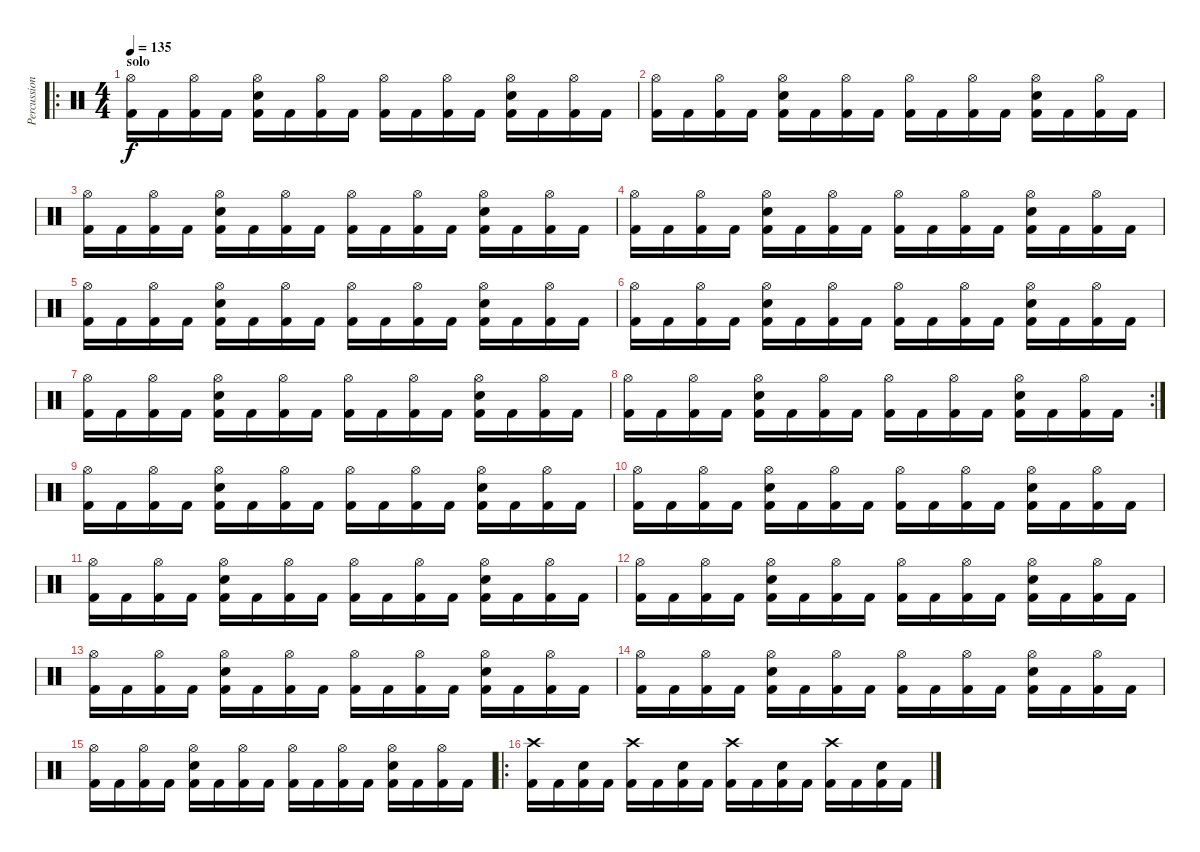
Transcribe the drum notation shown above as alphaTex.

\track ("Percussions" "Percussion") {instrument percussion}
\staff {score}
\articulation defaults
\ro
\ts (4 4)
\section ("" "solo")
\tempo 135
\clef neutral
\ks c
("Hi-Hat (open)" "Kick (hit) 2").16{dy f} "Kick (hit) 2".16 ("Hi-Hat (open)" "Kick (hit) 2").16 "Kick (hit) 2".16 ("Hi-Hat (open)" "Snare (hit) 2" "Kick (hit) 2").16 "Kick (hit) 2".16 ("Hi-Hat (open)" "Kick (hit) 2").16 "Kick (hit) 2".16 ("Hi-Hat (open)" "Kick (hit) 2").16 "Kick (hit) 2".16 ("Hi-Hat (open)" "Kick (hit) 2").16 "Kick (hit) 2".16 ("Hi-Hat (open)" "Snare (hit) 2" "Kick (hit) 2").16 "Kick (hit) 2".16 ("Hi-Hat (open)" "Kick (hit) 2").16 "Kick (hit) 2".16 |
("Hi-Hat (open)" "Kick (hit) 2").16 "Kick (hit) 2".16 ("Hi-Hat (open)" "Kick (hit) 2").16 "Kick (hit) 2".16 ("Hi-Hat (open)" "Snare (hit) 2" "Kick (hit) 2").16 "Kick (hit) 2".16 ("Hi-Hat (open)" "Kick (hit) 2").16 "Kick (hit) 2".16 ("Hi-Hat (open)" "Kick (hit) 2").16 "Kick (hit) 2".16 ("Hi-Hat (open)" "Kick (hit) 2").16 "Kick (hit) 2".16 ("Hi-Hat (open)" "Snare (hit) 2" "Kick (hit) 2").16 "Kick (hit) 2".16 ("Hi-Hat (open)" "Kick (hit) 2").16 "Kick (hit) 2".16 |
("Hi-Hat (open)" "Kick (hit) 2").16 "Kick (hit) 2".16 ("Hi-Hat (open)" "Kick (hit) 2").16 "Kick (hit) 2".16 ("Hi-Hat (open)" "Snare (hit) 2" "Kick (hit) 2").16 "Kick (hit) 2".16 ("Hi-Hat (open)" "Kick (hit) 2").16 "Kick (hit) 2".16 ("Hi-Hat (open)" "Kick (hit) 2").16 "Kick (hit) 2".16 ("Hi-Hat (open)" "Kick (hit) 2").16 "Kick (hit) 2".16 ("Hi-Hat (open)" "Snare (hit) 2" "Kick (hit) 2").16 "Kick (hit) 2".16 ("Hi-Hat (open)" "Kick (hit) 2").16 "Kick (hit) 2".16 |
("Hi-Hat (open)" "Kick (hit) 2").16 "Kick (hit) 2".16 ("Hi-Hat (open)" "Kick (hit) 2").16 "Kick (hit) 2".16 ("Hi-Hat (open)" "Snare (hit) 2" "Kick (hit) 2").16 "Kick (hit) 2".16 ("Hi-Hat (open)" "Kick (hit) 2").16 "Kick (hit) 2".16 ("Hi-Hat (open)" "Kick (hit) 2").16 "Kick (hit) 2".16 ("Hi-Hat (open)" "Kick (hit) 2").16 "Kick (hit) 2".16 ("Hi-Hat (open)" "Snare (hit) 2" "Kick (hit) 2").16 "Kick (hit) 2".16 ("Hi-Hat (open)" "Kick (hit) 2").16 "Kick (hit) 2".16 |
("Hi-Hat (open)" "Kick (hit) 2").16 "Kick (hit) 2".16 ("Hi-Hat (open)" "Kick (hit) 2").16 "Kick (hit) 2".16 ("Hi-Hat (open)" "Snare (hit) 2" "Kick (hit) 2").16 "Kick (hit) 2".16 ("Hi-Hat (open)" "Kick (hit) 2").16 "Kick (hit) 2".16 ("Hi-Hat (open)" "Kick (hit) 2").16 "Kick (hit) 2".16 ("Hi-Hat (open)" "Kick (hit) 2").16 "Kick (hit) 2".16 ("Hi-Hat (open)" "Snare (hit) 2" "Kick (hit) 2").16 "Kick (hit) 2".16 ("Hi-Hat (open)" "Kick (hit) 2").16 "Kick (hit) 2".16 |
("Hi-Hat (open)" "Kick (hit) 2").16 "Kick (hit) 2".16 ("Hi-Hat (open)" "Kick (hit) 2").16 "Kick (hit) 2".16 ("Hi-Hat (open)" "Snare (hit) 2" "Kick (hit) 2").16 "Kick (hit) 2".16 ("Hi-Hat (open)" "Kick (hit) 2").16 "Kick (hit) 2".16 ("Hi-Hat (open)" "Kick (hit) 2").16 "Kick (hit) 2".16 ("Hi-Hat (open)" "Kick (hit) 2").16 "Kick (hit) 2".16 ("Hi-Hat (open)" "Snare (hit) 2" "Kick (hit) 2").16 "Kick (hit) 2".16 ("Hi-Hat (open)" "Kick (hit) 2").16 "Kick (hit) 2".16 |
("Hi-Hat (open)" "Kick (hit) 2").16 "Kick (hit) 2".16 ("Hi-Hat (open)" "Kick (hit) 2").16 "Kick (hit) 2".16 ("Hi-Hat (open)" "Snare (hit) 2" "Kick (hit) 2").16 "Kick (hit) 2".16 ("Hi-Hat (open)" "Kick (hit) 2").16 "Kick (hit) 2".16 ("Hi-Hat (open)" "Kick (hit) 2").16 "Kick (hit) 2".16 ("Hi-Hat (open)" "Kick (hit) 2").16 "Kick (hit) 2".16 ("Hi-Hat (open)" "Snare (hit) 2" "Kick (hit) 2").16 "Kick (hit) 2".16 ("Hi-Hat (open)" "Kick (hit) 2").16 "Kick (hit) 2".16 |
\rc 2
("Hi-Hat (open)" "Kick (hit) 2").16 "Kick (hit) 2".16 ("Hi-Hat (open)" "Kick (hit) 2").16 "Kick (hit) 2".16 ("Hi-Hat (open)" "Snare (hit) 2" "Kick (hit) 2").16 "Kick (hit) 2".16 ("Hi-Hat (open)" "Kick (hit) 2").16 "Kick (hit) 2".16 ("Hi-Hat (open)" "Kick (hit) 2").16 "Kick (hit) 2".16 ("Hi-Hat (open)" "Kick (hit) 2").16 "Kick (hit) 2".16 ("Hi-Hat (open)" "Snare (hit) 2" "Kick (hit) 2").16 "Kick (hit) 2".16 ("Hi-Hat (open)" "Kick (hit) 2").16 "Kick (hit) 2".16 |
("Hi-Hat (open)" "Kick (hit) 2").16 "Kick (hit) 2".16 ("Hi-Hat (open)" "Kick (hit) 2").16 "Kick (hit) 2".16 ("Hi-Hat (open)" "Snare (hit) 2" "Kick (hit) 2").16 "Kick (hit) 2".16 ("Hi-Hat (open)" "Kick (hit) 2").16 "Kick (hit) 2".16 ("Hi-Hat (open)" "Kick (hit) 2").16 "Kick (hit) 2".16 ("Hi-Hat (open)" "Kick (hit) 2").16 "Kick (hit) 2".16 ("Hi-Hat (open)" "Snare (hit) 2" "Kick (hit) 2").16 "Kick (hit) 2".16 ("Hi-Hat (open)" "Kick (hit) 2").16 "Kick (hit) 2".16 |
("Hi-Hat (open)" "Kick (hit) 2").16 "Kick (hit) 2".16 ("Hi-Hat (open)" "Kick (hit) 2").16 "Kick (hit) 2".16 ("Hi-Hat (open)" "Snare (hit) 2" "Kick (hit) 2").16 "Kick (hit) 2".16 ("Hi-Hat (open)" "Kick (hit) 2").16 "Kick (hit) 2".16 ("Hi-Hat (open)" "Kick (hit) 2").16 "Kick (hit) 2".16 ("Hi-Hat (open)" "Kick (hit) 2").16 "Kick (hit) 2".16 ("Hi-Hat (open)" "Snare (hit) 2" "Kick (hit) 2").16 "Kick (hit) 2".16 ("Hi-Hat (open)" "Kick (hit) 2").16 "Kick (hit) 2".16 |
("Hi-Hat (open)" "Kick (hit) 2").16 "Kick (hit) 2".16 ("Hi-Hat (open)" "Kick (hit) 2").16 "Kick (hit) 2".16 ("Hi-Hat (open)" "Snare (hit) 2" "Kick (hit) 2").16 "Kick (hit) 2".16 ("Hi-Hat (open)" "Kick (hit) 2").16 "Kick (hit) 2".16 ("Hi-Hat (open)" "Kick (hit) 2").16 "Kick (hit) 2".16 ("Hi-Hat (open)" "Kick (hit) 2").16 "Kick (hit) 2".16 ("Hi-Hat (open)" "Snare (hit) 2" "Kick (hit) 2").16 "Kick (hit) 2".16 ("Hi-Hat (open)" "Kick (hit) 2").16 "Kick (hit) 2".16 |
("Hi-Hat (open)" "Kick (hit) 2").16 "Kick (hit) 2".16 ("Hi-Hat (open)" "Kick (hit) 2").16 "Kick (hit) 2".16 ("Hi-Hat (open)" "Snare (hit) 2" "Kick (hit) 2").16 "Kick (hit) 2".16 ("Hi-Hat (open)" "Kick (hit) 2").16 "Kick (hit) 2".16 ("Hi-Hat (open)" "Kick (hit) 2").16 "Kick (hit) 2".16 ("Hi-Hat (open)" "Kick (hit) 2").16 "Kick (hit) 2".16 ("Hi-Hat (open)" "Snare (hit) 2" "Kick (hit) 2").16 "Kick (hit) 2".16 ("Hi-Hat (open)" "Kick (hit) 2").16 "Kick (hit) 2".16 |
("Hi-Hat (open)" "Kick (hit) 2").16 "Kick (hit) 2".16 ("Hi-Hat (open)" "Kick (hit) 2").16 "Kick (hit) 2".16 ("Hi-Hat (open)" "Snare (hit) 2" "Kick (hit) 2").16 "Kick (hit) 2".16 ("Hi-Hat (open)" "Kick (hit) 2").16 "Kick (hit) 2".16 ("Hi-Hat (open)" "Kick (hit) 2").16 "Kick (hit) 2".16 ("Hi-Hat (open)" "Kick (hit) 2").16 "Kick (hit) 2".16 ("Hi-Hat (open)" "Snare (hit) 2" "Kick (hit) 2").16 "Kick (hit) 2".16 ("Hi-Hat (open)" "Kick (hit) 2").16 "Kick (hit) 2".16 |
("Hi-Hat (open)" "Kick (hit) 2").16 "Kick (hit) 2".16 ("Hi-Hat (open)" "Kick (hit) 2").16 "Kick (hit) 2".16 ("Hi-Hat (open)" "Snare (hit) 2" "Kick (hit) 2").16 "Kick (hit) 2".16 ("Hi-Hat (open)" "Kick (hit) 2").16 "Kick (hit) 2".16 ("Hi-Hat (open)" "Kick (hit) 2").16 "Kick (hit) 2".16 ("Hi-Hat (open)" "Kick (hit) 2").16 "Kick (hit) 2".16 ("Hi-Hat (open)" "Snare (hit) 2" "Kick (hit) 2").16 "Kick (hit) 2".16 ("Hi-Hat (open)" "Kick (hit) 2").16 "Kick (hit) 2".16 |
("Hi-Hat (open)" "Kick (hit) 2").16 "Kick (hit) 2".16 ("Hi-Hat (open)" "Kick (hit) 2").16 "Kick (hit) 2".16 ("Hi-Hat (open)" "Snare (hit) 2" "Kick (hit) 2").16 "Kick (hit) 2".16 ("Hi-Hat (open)" "Kick (hit) 2").16 "Kick (hit) 2".16 ("Hi-Hat (open)" "Kick (hit) 2").16 "Kick (hit) 2".16 ("Hi-Hat (open)" "Kick (hit) 2").16 "Kick (hit) 2".16 ("Hi-Hat (open)" "Snare (hit) 2" "Kick (hit) 2").16 "Kick (hit) 2".16 ("Hi-Hat (open)" "Kick (hit) 2").16 "Kick (hit) 2".16 |
\ro
("Crash high (hit)" "Kick (hit) 2").16 "Kick (hit) 2".16 ("Snare (hit) 2" "Kick (hit) 2").16 "Kick (hit) 2".16 ("Crash high (hit)" "Kick (hit) 2").16 "Kick (hit) 2".16 ("Snare (hit) 2" "Kick (hit) 2").16 "Kick (hit) 2".16 ("Crash high (hit)" "Kick (hit) 2").16 "Kick (hit) 2".16 ("Snare (hit) 2" "Kick (hit) 2").16 "Kick (hit) 2".16 ("Crash high (hit)" "Kick (hit) 2").16 "Kick (hit) 2".16 ("Snare (hit) 2" "Kick (hit) 2").16 "Kick (hit) 2".16
